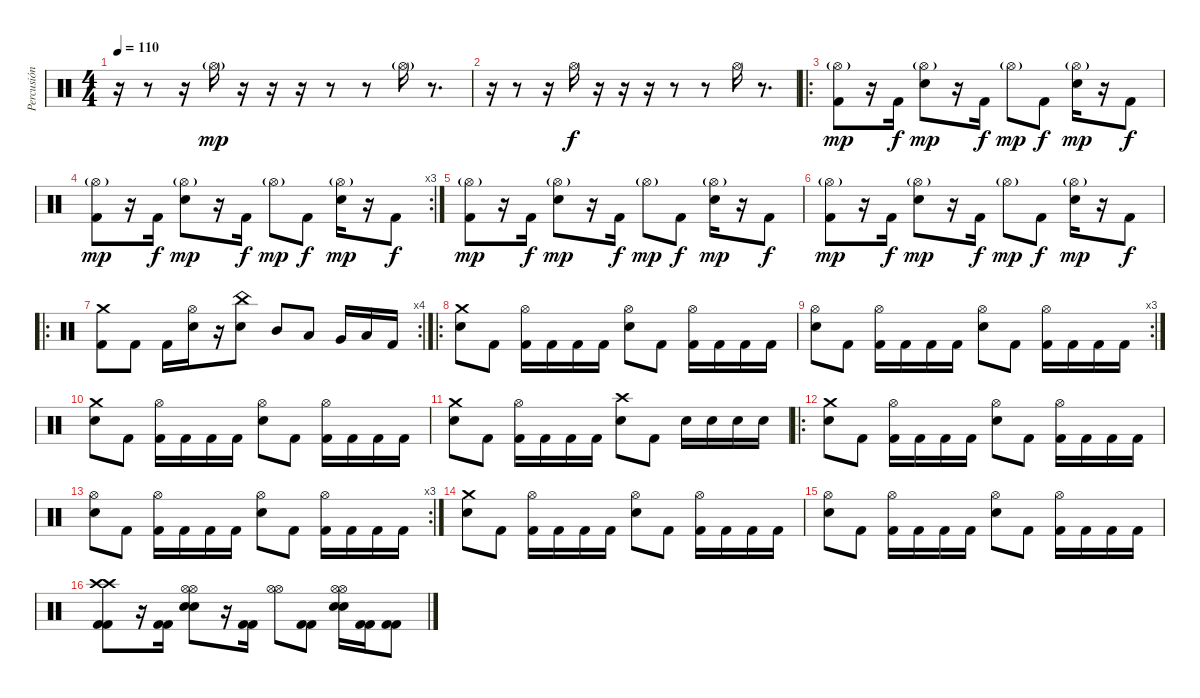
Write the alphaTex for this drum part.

\track ("Percusión" "Percusión") {instrument percussion}
\staff {score}
\articulation defaults
\ts (4 4)
\tempo 110
\clef neutral
\ks c
r.16{dy f} r.8 r.16 "Hi-Hat (open)"{g}.16{dy mp} r.16 r.16 r.16 r.8 r.8 "Hi-Hat (open)"{g}.16 r.8{d} |
r.16 r.8 r.16 "Hi-Hat (open)".16{dy f} r.16 r.16 r.16 r.8 r.8 "Hi-Hat (open)".16 r.8{d} |
\ro
("Hi-Hat (open)"{g} "Kick (hit) 2").8{dy mp} r.16 "Kick (hit) 2".16{dy f} ("Hi-Hat (open)"{g} "Electric Snare (hit)").8{dy mp} r.16 "Kick (hit) 2".16{dy f} "Hi-Hat (open)"{g}.8{dy mp} "Kick (hit) 2".8{dy f} ("Hi-Hat (open)"{g} "Electric Snare (hit)").16{dy mp} r.16 "Kick (hit) 2".8{dy f} |
\rc 3
("Hi-Hat (open)"{g} "Kick (hit) 2").8{dy mp} r.16 "Kick (hit) 2".16{dy f} ("Hi-Hat (open)"{g} "Electric Snare (hit)").8{dy mp} r.16 "Kick (hit) 2".16{dy f} "Hi-Hat (open)"{g}.8{dy mp} "Kick (hit) 2".8{dy f} ("Hi-Hat (open)"{g} "Electric Snare (hit)").16{dy mp} r.16 "Kick (hit) 2".8{dy f} |
("Hi-Hat (open)"{g} "Kick (hit) 2").8{dy mp} r.16 "Kick (hit) 2".16{dy f} ("Hi-Hat (open)"{g} "Electric Snare (hit)").8{dy mp} r.16 "Kick (hit) 2".16{dy f} "Hi-Hat (open)"{g}.8{dy mp} "Kick (hit) 2".8{dy f} ("Hi-Hat (open)"{g} "Electric Snare (hit)").16{dy mp} r.16 "Kick (hit) 2".8{dy f} |
("Hi-Hat (open)"{g} "Kick (hit) 2").8{dy mp} r.16 "Kick (hit) 2".16{dy f} ("Hi-Hat (open)"{g} "Electric Snare (hit)").8{dy mp} r.16 "Kick (hit) 2".16{dy f} "Hi-Hat (open)"{g}.8{dy mp} "Kick (hit) 2".8{dy f} ("Hi-Hat (open)"{g} "Electric Snare (hit)").16{dy mp} r.16 "Kick (hit) 2".8{dy f} |
\ro
\rc 4
("Crash medium (hit)" "Kick (hit) 2").8 "Kick (hit) 2".8 "Kick (hit) 2".16 ("Hi-Hat (open)" "Electric Snare (hit)").16 r.16 ("China (hit)" "Electric Snare (hit)").8 "Mid Tom (hit)".8 "Low Tom (hit)".8 "Very Low Tom (hit)".16 "Low Floor Tom (hit)".16 "Kick (hit) 2".16 |
\ro
("Crash medium (hit)" "Electric Snare (hit)").8 "Kick (hit) 2".8 ("Hi-Hat (open)" "Kick (hit) 2").16 "Kick (hit) 2".16 "Kick (hit) 2".16 "Kick (hit) 2".16 ("Hi-Hat (open)" "Electric Snare (hit)").8 "Kick (hit) 2".8 ("Hi-Hat (open)" "Kick (hit) 2").16 "Kick (hit) 2".16 "Kick (hit) 2".16 "Kick (hit) 2".16 |
\rc 3
("Hi-Hat (open)" "Electric Snare (hit)").8 "Kick (hit) 2".8 ("Hi-Hat (open)" "Kick (hit) 2").16 "Kick (hit) 2".16 "Kick (hit) 2".16 "Kick (hit) 2".16 ("Hi-Hat (open)" "Electric Snare (hit)").8 "Kick (hit) 2".8 ("Hi-Hat (open)" "Kick (hit) 2").16 "Kick (hit) 2".16 "Kick (hit) 2".16 "Kick (hit) 2".16 |
("Crash medium (hit)" "Electric Snare (hit)").8 "Kick (hit) 2".8 ("Hi-Hat (open)" "Kick (hit) 2").16 "Kick (hit) 2".16 "Kick (hit) 2".16 "Kick (hit) 2".16 ("Hi-Hat (open)" "Electric Snare (hit)").8 "Kick (hit) 2".8 ("Hi-Hat (open)" "Kick (hit) 2").16 "Kick (hit) 2".16 "Kick (hit) 2".16 "Kick (hit) 2".16 |
("Crash medium (hit)" "Electric Snare (hit)").8 "Kick (hit) 2".8 ("Hi-Hat (open)" "Kick (hit) 2").16 "Kick (hit) 2".16 "Kick (hit) 2".16 "Kick (hit) 2".16 ("Crash high (hit)" "Electric Snare (hit)").8 "Kick (hit) 2".8 "Electric Snare (hit)".16 "Electric Snare (hit)".16 "Electric Snare (hit)".16 "Electric Snare (hit)".16 |
\ro
("Crash medium (hit)" "Electric Snare (hit)").8 "Kick (hit) 2".8 ("Hi-Hat (open)" "Kick (hit) 2").16 "Kick (hit) 2".16 "Kick (hit) 2".16 "Kick (hit) 2".16 ("Hi-Hat (open)" "Electric Snare (hit)").8 "Kick (hit) 2".8 ("Hi-Hat (open)" "Kick (hit) 2").16 "Kick (hit) 2".16 "Kick (hit) 2".16 "Kick (hit) 2".16 |
\rc 3
("Hi-Hat (open)" "Electric Snare (hit)").8 "Kick (hit) 2".8 ("Hi-Hat (open)" "Kick (hit) 2").16 "Kick (hit) 2".16 "Kick (hit) 2".16 "Kick (hit) 2".16 ("Hi-Hat (open)" "Electric Snare (hit)").8 "Kick (hit) 2".8 ("Hi-Hat (open)" "Kick (hit) 2").16 "Kick (hit) 2".16 "Kick (hit) 2".16 "Kick (hit) 2".16 |
("Crash medium (hit)" "Electric Snare (hit)").8 "Kick (hit) 2".8 ("Hi-Hat (open)" "Kick (hit) 2").16 "Kick (hit) 2".16 "Kick (hit) 2".16 "Kick (hit) 2".16 ("Hi-Hat (open)" "Electric Snare (hit)").8 "Kick (hit) 2".8 ("Hi-Hat (open)" "Kick (hit) 2").16 "Kick (hit) 2".16 "Kick (hit) 2".16 "Kick (hit) 2".16 |
("Hi-Hat (open)" "Electric Snare (hit)").8 "Kick (hit) 2".8 ("Hi-Hat (open)" "Kick (hit) 2").16 "Kick (hit) 2".16 "Kick (hit) 2".16 "Kick (hit) 2".16 ("Hi-Hat (open)" "Electric Snare (hit)").8 "Kick (hit) 2".8 ("Hi-Hat (open)" "Kick (hit) 2").16 "Kick (hit) 2".16 "Kick (hit) 2".16 "Kick (hit) 2".16 |
("Crash high (hit)" "Crash high (hit)" "Kick (hit) 2" "Kick (hit) 2").8 r.16 ("Kick (hit) 2" "Kick (hit) 2").16 ("Hi-Hat (open)" "Hi-Hat (open)" "Electric Snare (hit)" "Electric Snare (hit)").8 r.16 ("Kick (hit) 2" "Kick (hit) 2").16 ("Hi-Hat (open)" "Hi-Hat (open)").8 ("Kick (hit) 2" "Kick (hit) 2").8 ("Hi-Hat (open)" "Hi-Hat (open)" "Electric Snare (hit)" "Electric Snare (hit)").16 ("Kick (hit) 2" "Kick (hit) 2").16 ("Kick (hit) 2" "Kick (hit) 2").8
